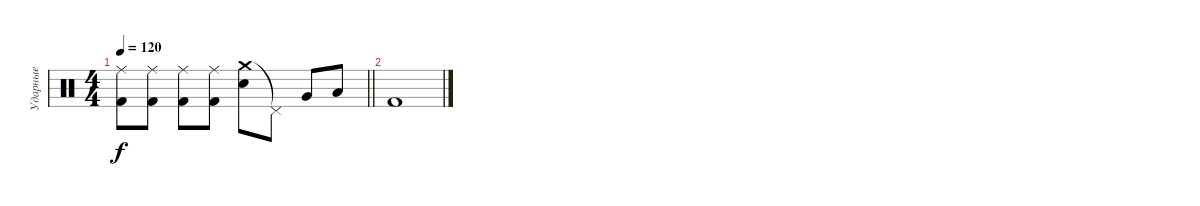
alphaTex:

\track ("Ударные" "Ударные") {instrument percussion}
\staff {score}
\articulation defaults
\ts (4 4)
\tempo 120
\clef neutral
\barLineRight lightlight
\ks c
("Ride (middle)" "Kick (hit) 2").8{dy f} ("Ride (middle)" "Kick (hit) 2").8 ("Ride (middle)" "Kick (hit) 2").8 ("Ride (middle)" "Kick (hit) 2").8 ("Crash medium (hit)" "Snare (hit) 2").8 "Pedal Hi-Hat (hit)"{t}.8 "Very Low Tom (hit)".8 "Low Tom (hit)".8 |
"Kick (hit) 2".1
